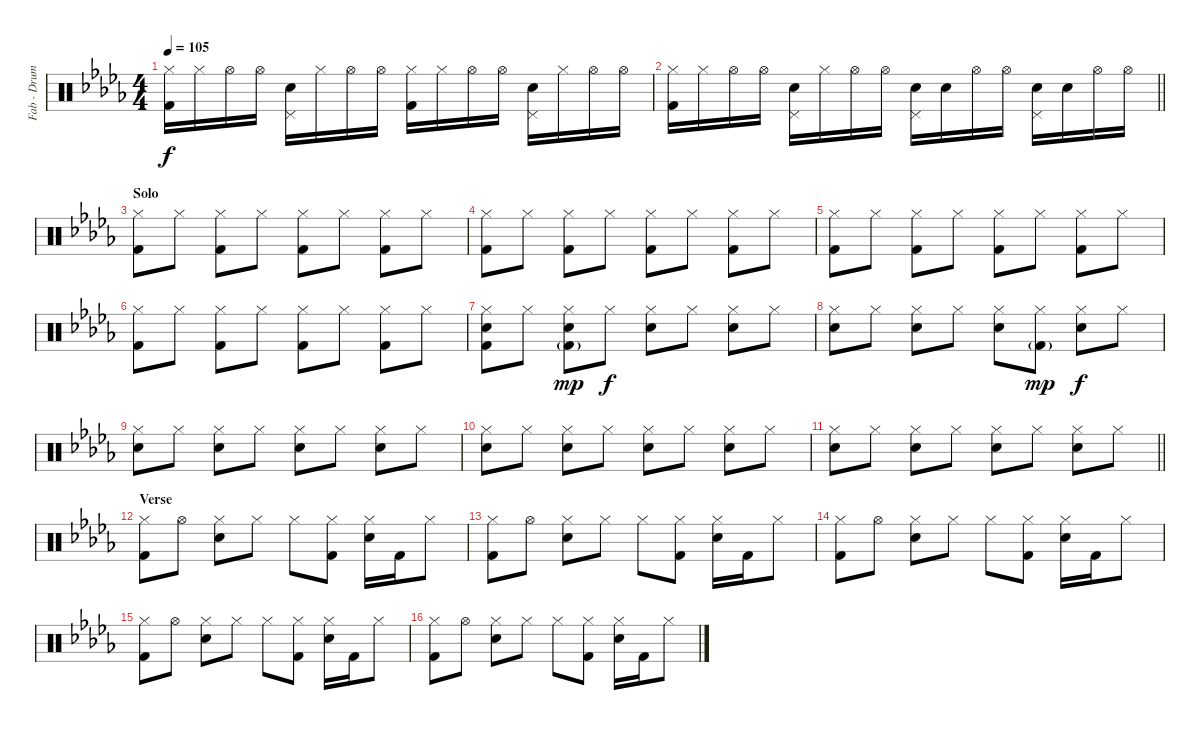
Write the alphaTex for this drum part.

\track ("Fab - Drums MIDI" "Fab - Drum") {instrument percussion}
\staff {score}
\articulation defaults
\ts (4 4)
\tempo 105
\clef neutral
\ks db
("Hi-Hat (closed)" "Kick (hit) 2").16{dy f} "Hi-Hat (closed)".16 "Hi-Hat (open)".16 "Hi-Hat (open)".16 ("Pedal Hi-Hat (hit)" "Snare (hit) 2").16 "Hi-Hat (closed)".16 "Hi-Hat (open)".16 "Hi-Hat (open)".16 ("Hi-Hat (closed)" "Kick (hit) 2").16 "Hi-Hat (closed)".16 "Hi-Hat (open)".16 "Hi-Hat (open)".16 ("Pedal Hi-Hat (hit)" "Snare (hit) 2").16 "Hi-Hat (closed)".16 "Hi-Hat (open)".16 "Hi-Hat (open)".16 |
\barLineRight lightlight
("Hi-Hat (closed)" "Kick (hit) 2").16 "Hi-Hat (closed)".16 "Hi-Hat (open)".16 "Hi-Hat (open)".16 ("Pedal Hi-Hat (hit)" "Snare (hit) 2").16 "Hi-Hat (closed)".16 "Hi-Hat (open)".16 "Hi-Hat (open)".16 ("Pedal Hi-Hat (hit)" "Snare (hit) 2").16 "Snare (hit) 2".16 "Hi-Hat (open)".16 "Hi-Hat (open)".16 ("Pedal Hi-Hat (hit)" "Snare (hit) 2").16 "Snare (hit) 2".16 "Hi-Hat (open)".16 "Hi-Hat (open)".16 |
\section ("" "Solo")
("Hi-Hat (closed)" "Kick (hit) 2").8 "Hi-Hat (closed)".8 ("Hi-Hat (closed)" "Kick (hit) 2").8 "Hi-Hat (closed)".8 ("Hi-Hat (closed)" "Kick (hit) 2").8 "Hi-Hat (closed)".8 ("Hi-Hat (closed)" "Kick (hit) 2").8 "Hi-Hat (closed)".8 |
("Hi-Hat (closed)" "Kick (hit) 2").8 "Hi-Hat (closed)".8 ("Hi-Hat (closed)" "Kick (hit) 2").8 "Hi-Hat (closed)".8 ("Hi-Hat (closed)" "Kick (hit) 2").8 "Hi-Hat (closed)".8 ("Hi-Hat (closed)" "Kick (hit) 2").8 "Hi-Hat (closed)".8 |
("Hi-Hat (closed)" "Kick (hit) 2").8 "Hi-Hat (closed)".8 ("Hi-Hat (closed)" "Kick (hit) 2").8 "Hi-Hat (closed)".8 ("Hi-Hat (closed)" "Kick (hit) 2").8 "Hi-Hat (closed)".8 ("Hi-Hat (closed)" "Kick (hit) 2").8 "Hi-Hat (closed)".8 |
("Hi-Hat (closed)" "Kick (hit) 2").8 "Hi-Hat (closed)".8 ("Hi-Hat (closed)" "Kick (hit) 2").8 "Hi-Hat (closed)".8 ("Hi-Hat (closed)" "Kick (hit) 2").8 "Hi-Hat (closed)".8 ("Hi-Hat (closed)" "Kick (hit) 2").8 "Hi-Hat (closed)".8 |
("Hi-Hat (closed)" "Snare (hit) 2" "Kick (hit) 2").8 "Hi-Hat (closed)".8 ("Hi-Hat (closed)" "Snare (hit) 2" "Kick (hit) 2"{g}).8{dy mp} "Hi-Hat (closed)".8{dy f} ("Hi-Hat (closed)" "Snare (hit) 2").8 "Hi-Hat (closed)".8 ("Hi-Hat (closed)" "Snare (hit) 2").8 "Hi-Hat (closed)".8 |
("Hi-Hat (closed)" "Snare (hit) 2").8 "Hi-Hat (closed)".8 ("Hi-Hat (closed)" "Snare (hit) 2").8 "Hi-Hat (closed)".8 ("Hi-Hat (closed)" "Snare (hit) 2").8 ("Hi-Hat (closed)" "Kick (hit) 2"{g}).8{dy mp} ("Hi-Hat (closed)" "Snare (hit) 2").8{dy f} "Hi-Hat (closed)".8 |
("Hi-Hat (closed)" "Snare (hit) 2").8 "Hi-Hat (closed)".8 ("Hi-Hat (closed)" "Snare (hit) 2").8 "Hi-Hat (closed)".8 ("Hi-Hat (closed)" "Snare (hit) 2").8 "Hi-Hat (closed)".8 ("Hi-Hat (closed)" "Snare (hit) 2").8 "Hi-Hat (closed)".8 |
("Hi-Hat (closed)" "Snare (hit) 2").8 "Hi-Hat (closed)".8 ("Hi-Hat (closed)" "Snare (hit) 2").8 "Hi-Hat (closed)".8 ("Hi-Hat (closed)" "Snare (hit) 2").8 "Hi-Hat (closed)".8 ("Hi-Hat (closed)" "Snare (hit) 2").8 "Hi-Hat (closed)".8 |
\barLineRight lightlight
("Hi-Hat (closed)" "Snare (hit) 2").8 "Hi-Hat (closed)".8 ("Hi-Hat (closed)" "Snare (hit) 2").8 "Hi-Hat (closed)".8 ("Hi-Hat (closed)" "Snare (hit) 2").8 "Hi-Hat (closed)".8 ("Hi-Hat (closed)" "Snare (hit) 2").8 "Hi-Hat (closed)".8 |
\section ("" "Verse")
("Hi-Hat (closed)" "Kick (hit) 2").8 "Hi-Hat (open)".8 ("Hi-Hat (closed)" "Snare (hit) 2").8 "Hi-Hat (closed)".8 "Hi-Hat (closed)".8 ("Hi-Hat (closed)" "Kick (hit) 2").8 ("Hi-Hat (closed)" "Snare (hit) 2").16 "Kick (hit) 2".16 "Hi-Hat (closed)".8 |
("Hi-Hat (closed)" "Kick (hit) 2").8 "Hi-Hat (open)".8 ("Hi-Hat (closed)" "Snare (hit) 2").8 "Hi-Hat (closed)".8 "Hi-Hat (closed)".8 ("Hi-Hat (closed)" "Kick (hit) 2").8 ("Hi-Hat (closed)" "Snare (hit) 2").16 "Kick (hit) 2".16 "Hi-Hat (closed)".8 |
("Hi-Hat (closed)" "Kick (hit) 2").8 "Hi-Hat (open)".8 ("Hi-Hat (closed)" "Snare (hit) 2").8 "Hi-Hat (closed)".8 "Hi-Hat (closed)".8 ("Hi-Hat (closed)" "Kick (hit) 2").8 ("Hi-Hat (closed)" "Snare (hit) 2").16 "Kick (hit) 2".16 "Hi-Hat (closed)".8 |
("Hi-Hat (closed)" "Kick (hit) 2").8 "Hi-Hat (open)".8 ("Hi-Hat (closed)" "Snare (hit) 2").8 "Hi-Hat (closed)".8 "Hi-Hat (closed)".8 ("Hi-Hat (closed)" "Kick (hit) 2").8 ("Hi-Hat (closed)" "Snare (hit) 2").16 "Kick (hit) 2".16 "Hi-Hat (closed)".8 |
("Hi-Hat (closed)" "Kick (hit) 2").8 "Hi-Hat (open)".8 ("Hi-Hat (closed)" "Snare (hit) 2").8 "Hi-Hat (closed)".8 "Hi-Hat (closed)".8 ("Hi-Hat (closed)" "Kick (hit) 2").8 ("Hi-Hat (closed)" "Snare (hit) 2").16 "Kick (hit) 2".16 "Hi-Hat (closed)".8
